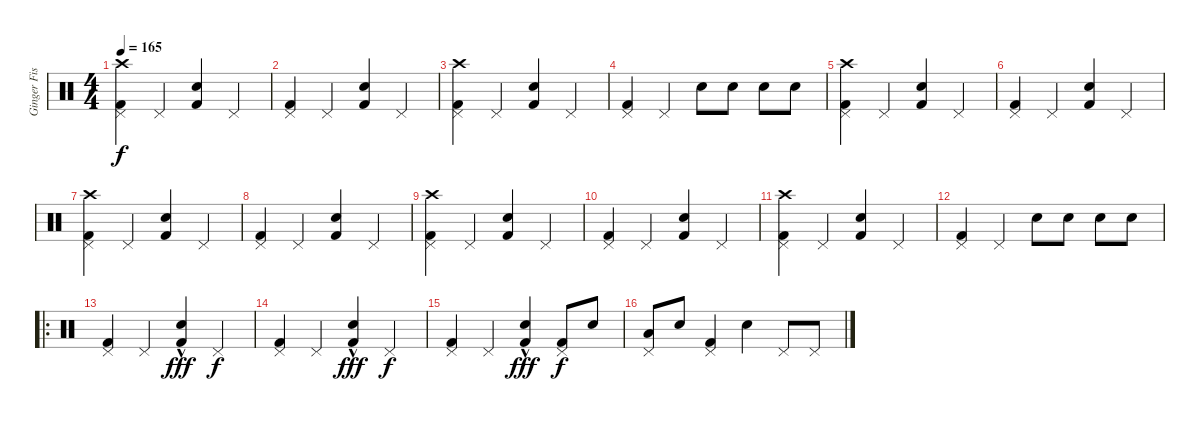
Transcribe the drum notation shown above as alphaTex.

\track ("Ginger Fish" "Ginger Fis") {instrument percussion}
\staff {score}
\articulation defaults
\ts (4 4)
\tempo 165
\clef neutral
\ks c
("Crash high (hit)" "Pedal Hi-Hat (hit)" "Kick (hit) 2").4{dy f} "Pedal Hi-Hat (hit)".4 ("Electric Snare (hit)" "Kick (hit) 2").4 "Pedal Hi-Hat (hit)".4 |
("Pedal Hi-Hat (hit)" "Kick (hit) 2").4 "Pedal Hi-Hat (hit)".4 ("Electric Snare (hit)" "Kick (hit) 2").4 "Pedal Hi-Hat (hit)".4 |
("Crash high (hit)" "Pedal Hi-Hat (hit)" "Kick (hit) 2").4 "Pedal Hi-Hat (hit)".4 ("Electric Snare (hit)" "Kick (hit) 2").4 "Pedal Hi-Hat (hit)".4 |
("Pedal Hi-Hat (hit)" "Kick (hit) 2").4 "Pedal Hi-Hat (hit)".4 "Electric Snare (hit)".8 "Electric Snare (hit)".8 "Electric Snare (hit)".8 "Electric Snare (hit)".8 |
("Crash high (hit)" "Pedal Hi-Hat (hit)" "Kick (hit) 2").4 "Pedal Hi-Hat (hit)".4 ("Electric Snare (hit)" "Kick (hit) 2").4 "Pedal Hi-Hat (hit)".4 |
("Pedal Hi-Hat (hit)" "Kick (hit) 2").4 "Pedal Hi-Hat (hit)".4 ("Electric Snare (hit)" "Kick (hit) 2").4 "Pedal Hi-Hat (hit)".4 |
("Crash high (hit)" "Pedal Hi-Hat (hit)" "Kick (hit) 2").4 "Pedal Hi-Hat (hit)".4 ("Electric Snare (hit)" "Kick (hit) 2").4 "Pedal Hi-Hat (hit)".4 |
("Pedal Hi-Hat (hit)" "Kick (hit) 2").4 "Pedal Hi-Hat (hit)".4 ("Electric Snare (hit)" "Kick (hit) 2").4 "Pedal Hi-Hat (hit)".4 |
("Crash high (hit)" "Pedal Hi-Hat (hit)" "Kick (hit) 2").4 "Pedal Hi-Hat (hit)".4 ("Electric Snare (hit)" "Kick (hit) 2").4 "Pedal Hi-Hat (hit)".4 |
("Pedal Hi-Hat (hit)" "Kick (hit) 2").4 "Pedal Hi-Hat (hit)".4 ("Electric Snare (hit)" "Kick (hit) 2").4 "Pedal Hi-Hat (hit)".4 |
("Crash high (hit)" "Pedal Hi-Hat (hit)" "Kick (hit) 2").4 "Pedal Hi-Hat (hit)".4 ("Electric Snare (hit)" "Kick (hit) 2").4 "Pedal Hi-Hat (hit)".4 |
("Pedal Hi-Hat (hit)" "Kick (hit) 2").4 "Pedal Hi-Hat (hit)".4 "Electric Snare (hit)".8 "Electric Snare (hit)".8 "Electric Snare (hit)".8 "Electric Snare (hit)".8 |
\ro
("Pedal Hi-Hat (hit)" "Kick (hit) 2").4 "Pedal Hi-Hat (hit)".4 ("Electric Snare (hit)"{hac} "Kick (hit) 2").4{dy fff} "Pedal Hi-Hat (hit)".4{dy f} |
("Pedal Hi-Hat (hit)" "Kick (hit) 2").4 "Pedal Hi-Hat (hit)".4 ("Electric Snare (hit)"{hac} "Kick (hit) 2").4{dy fff} "Pedal Hi-Hat (hit)".4{dy f} |
("Pedal Hi-Hat (hit)" "Kick (hit) 2").4 "Pedal Hi-Hat (hit)".4 ("Electric Snare (hit)"{hac} "Kick (hit) 2").4{dy fff} ("Pedal Hi-Hat (hit)" "Kick (hit) 2").8{dy f} "Electric Snare (hit)".8 |
("Pedal Hi-Hat (hit)" "Low Tom (hit)").8 "Electric Snare (hit)".8 ("Pedal Hi-Hat (hit)" "Kick (hit) 2").4 "Electric Snare (hit)".4 "Pedal Hi-Hat (hit)".8 "Pedal Hi-Hat (hit)".8
